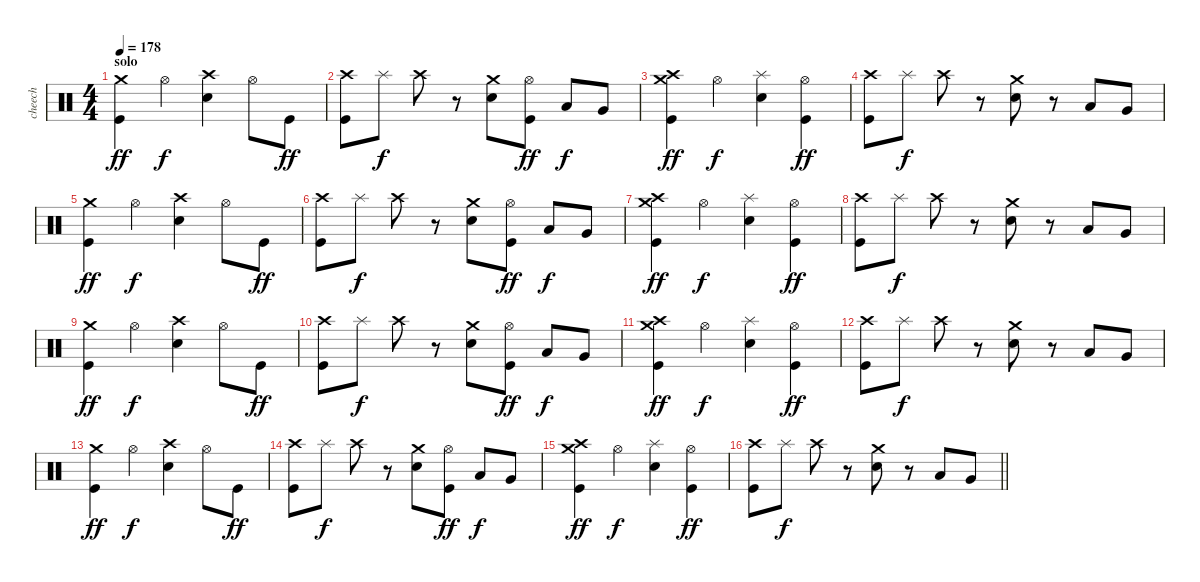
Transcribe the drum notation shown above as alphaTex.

\track ("cheech" "cheech") {solo instrument percussion}
\staff {score}
\articulation defaults
\ts (4 4)
\section ("" "solo")
\tempo 178
\clef neutral
\ks c
("Crash medium (hit)" "Kick (hit)").4{dy ff} "Hi-Hat (open)".4{dy f} ("Electric Snare (hit)" "Crash high (hit)").4 "Hi-Hat (open)".8 "Kick (hit)".8{dy ff} |
("Crash high (hit)" "Kick (hit)").8 "Splash (hit)".8{dy f} "Crash high (hit)".8 r.8 ("Crash medium (hit)" "Electric Snare (hit)").8 ("Hi-Hat (open)" "Kick (hit)").8{dy ff} "Low Tom (hit)".8{dy f} "Very Low Tom (hit)".8 |
("Crash medium (hit)" "Crash high (hit)" "Kick (hit)").4{dy ff} "Hi-Hat (open)".4{dy f} ("Splash (hit)" "Electric Snare (hit)").4 ("Hi-Hat (open)" "Kick (hit)").4{dy ff} |
("Crash high (hit)" "Kick (hit)").8 "Splash (hit)".8{dy f} "Crash high (hit)".8 r.8 ("Crash medium (hit)" "Electric Snare (hit)").8 r.8 "Low Tom (hit)".8 "Very Low Tom (hit)".8 |
("Crash medium (hit)" "Kick (hit)").4{dy ff} "Hi-Hat (open)".4{dy f} ("Electric Snare (hit)" "Crash high (hit)").4 "Hi-Hat (open)".8 "Kick (hit)".8{dy ff} |
("Crash high (hit)" "Kick (hit)").8 "Splash (hit)".8{dy f} "Crash high (hit)".8 r.8 ("Crash medium (hit)" "Electric Snare (hit)").8 ("Hi-Hat (open)" "Kick (hit)").8{dy ff} "Low Tom (hit)".8{dy f} "Very Low Tom (hit)".8 |
("Crash medium (hit)" "Crash high (hit)" "Kick (hit)").4{dy ff} "Hi-Hat (open)".4{dy f} ("Splash (hit)" "Electric Snare (hit)").4 ("Hi-Hat (open)" "Kick (hit)").4{dy ff} |
("Crash high (hit)" "Kick (hit)").8 "Splash (hit)".8{dy f} "Crash high (hit)".8 r.8 ("Crash medium (hit)" "Electric Snare (hit)").8 r.8 "Low Tom (hit)".8 "Very Low Tom (hit)".8 |
("Crash medium (hit)" "Kick (hit)").4{dy ff} "Hi-Hat (open)".4{dy f} ("Electric Snare (hit)" "Crash high (hit)").4 "Hi-Hat (open)".8 "Kick (hit)".8{dy ff} |
("Crash high (hit)" "Kick (hit)").8 "Splash (hit)".8{dy f} "Crash high (hit)".8 r.8 ("Crash medium (hit)" "Electric Snare (hit)").8 ("Hi-Hat (open)" "Kick (hit)").8{dy ff} "Low Tom (hit)".8{dy f} "Very Low Tom (hit)".8 |
("Crash medium (hit)" "Crash high (hit)" "Kick (hit)").4{dy ff} "Hi-Hat (open)".4{dy f} ("Splash (hit)" "Electric Snare (hit)").4 ("Hi-Hat (open)" "Kick (hit)").4{dy ff} |
("Crash high (hit)" "Kick (hit)").8 "Splash (hit)".8{dy f} "Crash high (hit)".8 r.8 ("Crash medium (hit)" "Electric Snare (hit)").8 r.8 "Low Tom (hit)".8 "Very Low Tom (hit)".8 |
("Crash medium (hit)" "Kick (hit)").4{dy ff} "Hi-Hat (open)".4{dy f} ("Electric Snare (hit)" "Crash high (hit)").4 "Hi-Hat (open)".8 "Kick (hit)".8{dy ff} |
("Crash high (hit)" "Kick (hit)").8 "Splash (hit)".8{dy f} "Crash high (hit)".8 r.8 ("Crash medium (hit)" "Electric Snare (hit)").8 ("Hi-Hat (open)" "Kick (hit)").8{dy ff} "Low Tom (hit)".8{dy f} "Very Low Tom (hit)".8 |
("Crash medium (hit)" "Crash high (hit)" "Kick (hit)").4{dy ff} "Hi-Hat (open)".4{dy f} ("Splash (hit)" "Electric Snare (hit)").4 ("Hi-Hat (open)" "Kick (hit)").4{dy ff} |
\barLineRight lightlight
("Crash high (hit)" "Kick (hit)").8 "Splash (hit)".8{dy f} "Crash high (hit)".8 r.8 ("Crash medium (hit)" "Electric Snare (hit)").8 r.8 "Low Tom (hit)".8 "Very Low Tom (hit)".8
